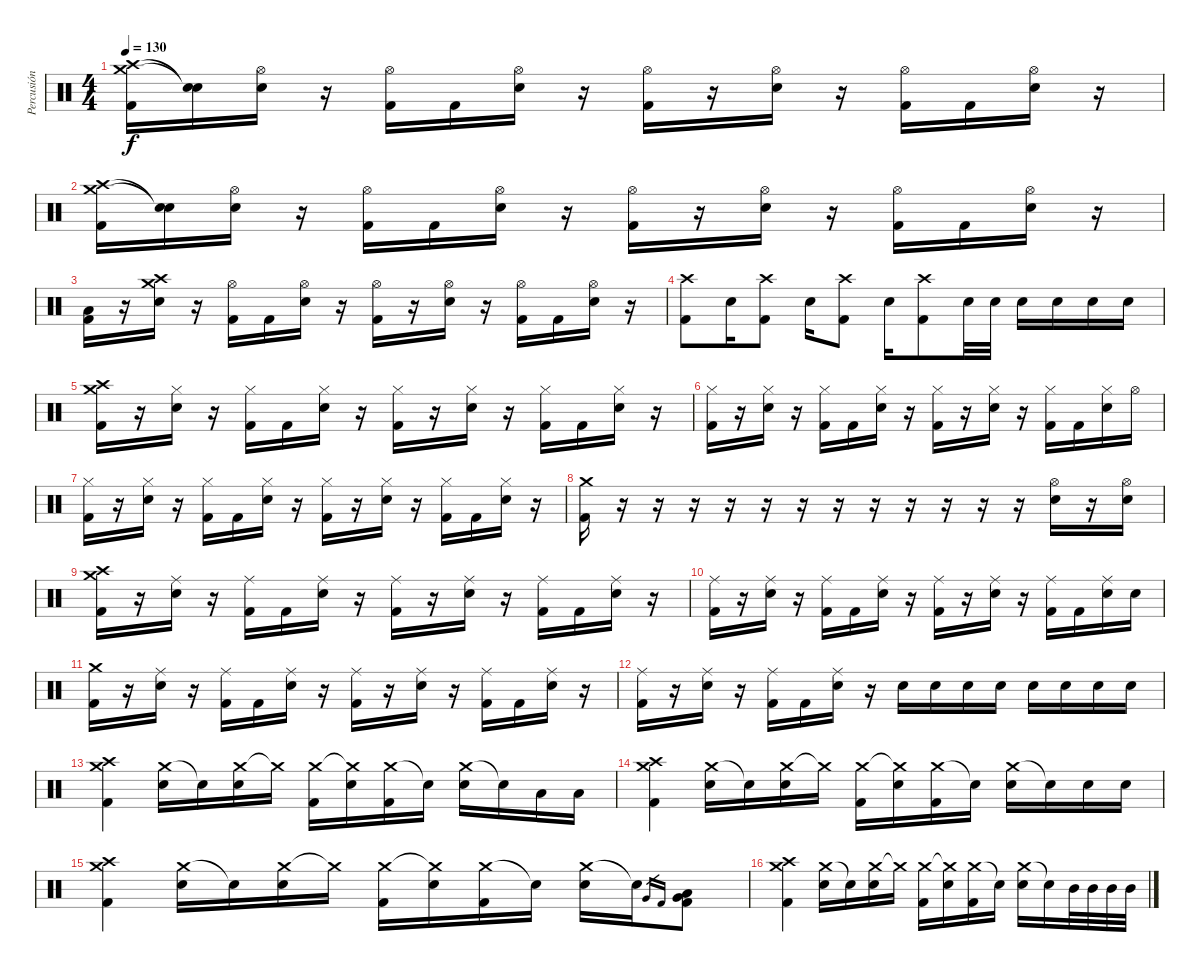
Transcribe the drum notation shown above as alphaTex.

\track ("Percusión" "Percusión") {instrument percussion}
\staff {score}
\articulation defaults
\ts (4 4)
\tempo 130
\clef neutral
\ks c
("Crash high (hit)" "Crash medium (hit)" "Kick (hit) 2").16{dy f} ("Snare (hit)"{t} "Snare (hit)"{t}).16 ("Hi-Hat (open)" "Electric Snare (hit)").16 r.16 ("Hi-Hat (open)" "Kick (hit) 2").16 "Kick (hit) 2".16 ("Hi-Hat (open)" "Electric Snare (hit)").16 r.16 ("Hi-Hat (open)" "Kick (hit) 2").16 r.16 ("Hi-Hat (open)" "Electric Snare (hit)").16 r.16 ("Hi-Hat (open)" "Kick (hit) 2").16 "Kick (hit) 2".16 ("Hi-Hat (open)" "Electric Snare (hit)").16 r.16 |
("Crash high (hit)" "Crash medium (hit)" "Kick (hit) 2").16 ("Snare (hit)"{t} "Snare (hit)"{t}).16 ("Hi-Hat (open)" "Electric Snare (hit)").16 r.16 ("Hi-Hat (open)" "Kick (hit) 2").16 "Kick (hit) 2".16 ("Hi-Hat (open)" "Electric Snare (hit)").16 r.16 ("Hi-Hat (open)" "Kick (hit) 2").16 r.16 ("Hi-Hat (open)" "Electric Snare (hit)").16 r.16 ("Hi-Hat (open)" "Kick (hit) 2").16 "Kick (hit) 2".16 ("Hi-Hat (open)" "Electric Snare (hit)").16 r.16 |
("Low Tom (hit)" "Kick (hit) 2").16 r.16 ("Crash medium (hit)" "Crash high (hit)" "Electric Snare (hit)").16 r.16 ("Hi-Hat (open)" "Kick (hit) 2").16 "Kick (hit) 2".16 ("Hi-Hat (open)" "Electric Snare (hit)").16 r.16 ("Hi-Hat (open)" "Kick (hit) 2").16 r.16 ("Hi-Hat (open)" "Electric Snare (hit)").16 r.16 ("Hi-Hat (open)" "Kick (hit) 2").16 "Kick (hit) 2".16 ("Hi-Hat (open)" "Electric Snare (hit)").16 r.16 |
("Crash high (hit)" "Kick (hit) 2").8 "Electric Snare (hit)".16 ("Crash high (hit)" "Kick (hit) 2").8 "Electric Snare (hit)".16 ("Crash high (hit)" "Kick (hit) 2").8 "Electric Snare (hit)".16 ("Crash high (hit)" "Kick (hit) 2").8 "Electric Snare (hit)".32 "Electric Snare (hit)".32 "Electric Snare (hit)".16 "Electric Snare (hit)".16 "Electric Snare (hit)".16 "Electric Snare (hit)".16 |
("Crash high (hit)" "Crash medium (hit)" "Kick (hit) 2").16 r.16 ("Hi-Hat (closed)" "Electric Snare (hit)").16 r.16 ("Hi-Hat (closed)" "Kick (hit) 2").16 "Kick (hit) 2".16 ("Hi-Hat (closed)" "Electric Snare (hit)").16 r.16 ("Hi-Hat (closed)" "Kick (hit) 2").16 r.16 ("Hi-Hat (closed)" "Electric Snare (hit)").16 r.16 ("Hi-Hat (closed)" "Kick (hit) 2").16 "Kick (hit) 2".16 ("Hi-Hat (closed)" "Electric Snare (hit)").16 r.16 |
("Hi-Hat (closed)" "Kick (hit) 2").16 r.16 ("Hi-Hat (closed)" "Electric Snare (hit)").16 r.16 ("Hi-Hat (closed)" "Kick (hit) 2").16 "Kick (hit) 2".16 ("Hi-Hat (closed)" "Electric Snare (hit)").16 r.16 ("Hi-Hat (closed)" "Kick (hit) 2").16 r.16 ("Hi-Hat (closed)" "Electric Snare (hit)").16 r.16 ("Hi-Hat (closed)" "Kick (hit) 2").16 "Kick (hit) 2".16 ("Hi-Hat (closed)" "Electric Snare (hit)").16 "Hi-Hat (open)".16 |
("Hi-Hat (closed)" "Kick (hit) 2").16 r.16 ("Hi-Hat (closed)" "Electric Snare (hit)").16 r.16 ("Hi-Hat (closed)" "Kick (hit) 2").16 "Kick (hit) 2".16 ("Hi-Hat (closed)" "Electric Snare (hit)").16 r.16 ("Hi-Hat (closed)" "Kick (hit) 2").16 r.16 ("Hi-Hat (closed)" "Electric Snare (hit)").16 r.16 ("Hi-Hat (closed)" "Kick (hit) 2").16 "Kick (hit) 2".16 ("Hi-Hat (closed)" "Electric Snare (hit)").16 r.16 |
("Crash medium (hit)" "Kick (hit) 2").16 r.16 r.16 r.16 r.16 r.16 r.16 r.16 r.16 r.16 r.16 r.16 r.16 ("Hi-Hat (open)" "Electric Snare (hit)").16 r.16 ("Hi-Hat (open)" "Electric Snare (hit)").16 |
("Crash high (hit)" "Crash medium (hit)" "Kick (hit) 2").16 r.16 ("Ride (middle)" "Electric Snare (hit)").16 r.16 ("Ride (middle)" "Kick (hit) 2").16 "Kick (hit) 2".16 ("Ride (middle)" "Electric Snare (hit)").16 r.16 ("Ride (middle)" "Kick (hit) 2").16 r.16 ("Ride (middle)" "Electric Snare (hit)").16 r.16 ("Ride (middle)" "Kick (hit) 2").16 "Kick (hit) 2".16 ("Ride (middle)" "Electric Snare (hit)").16 r.16 |
("Ride (middle)" "Kick (hit) 2").16 r.16 ("Ride (middle)" "Electric Snare (hit)").16 r.16 ("Ride (middle)" "Kick (hit) 2").16 "Kick (hit) 2".16 ("Ride (middle)" "Electric Snare (hit)").16 r.16 ("Ride (middle)" "Kick (hit) 2").16 r.16 ("Ride (middle)" "Electric Snare (hit)").16 r.16 ("Ride (middle)" "Kick (hit) 2").16 "Kick (hit) 2".16 ("Ride (middle)" "Electric Snare (hit)").16 "Electric Snare (hit)".16 |
("Crash medium (hit)" "Kick (hit) 2").16 r.16 ("Ride (middle)" "Electric Snare (hit)").16 r.16 ("Ride (middle)" "Kick (hit) 2").16 "Kick (hit) 2".16 ("Ride (middle)" "Electric Snare (hit)").16 r.16 ("Ride (middle)" "Kick (hit) 2").16 r.16 ("Ride (middle)" "Electric Snare (hit)").16 r.16 ("Ride (middle)" "Kick (hit) 2").16 "Kick (hit) 2".16 ("Ride (middle)" "Electric Snare (hit)").16 r.16 |
("Ride (middle)" "Kick (hit) 2").16 r.16 ("Ride (middle)" "Electric Snare (hit)").16 r.16 ("Ride (middle)" "Kick (hit) 2").16 "Kick (hit) 2".16 ("Ride (middle)" "Electric Snare (hit)").16 r.16 "Electric Snare (hit)".16 "Electric Snare (hit)".16 "Electric Snare (hit)".16 "Electric Snare (hit)".16 "Electric Snare (hit)".16 "Electric Snare (hit)".16 "Electric Snare (hit)".16 "Electric Snare (hit)".16 |
("Crash medium (hit)" "Crash high (hit)" "Kick (hit) 2").4 ("Crash medium (hit)" "Electric Snare (hit)").16 "Snare (hit)"{t}.16 ("Crash medium (hit)" "Electric Snare (hit)").16 "Crash medium (hit)"{t}.16 ("Crash medium (hit)" "Kick (hit) 2").16 ("Crash medium (hit)"{t} "Electric Snare (hit)").16 ("Crash medium (hit)" "Kick (hit) 2").16 "Snare (hit)"{t}.16 ("Crash medium (hit)" "Electric Snare (hit)").16 "Snare (hit)"{t}.16 "Low Tom (hit)".16 "Low Tom (hit)".16 |
("Crash medium (hit)" "Crash high (hit)" "Kick (hit) 2").4 ("Crash medium (hit)" "Electric Snare (hit)").16 "Snare (hit)"{t}.16 ("Crash medium (hit)" "Electric Snare (hit)").16 "Crash medium (hit)"{t}.16 ("Crash medium (hit)" "Kick (hit) 2").16 ("Crash medium (hit)"{t} "Electric Snare (hit)").16 ("Crash medium (hit)" "Kick (hit) 2").16 "Snare (hit)"{t}.16 ("Crash medium (hit)" "Electric Snare (hit)").16 "Snare (hit)"{t}.16 "Electric Snare (hit)".16 "Electric Snare (hit)".16 |
("Crash medium (hit)" "Crash high (hit)" "Kick (hit) 2").4 ("Crash medium (hit)" "Electric Snare (hit)").16 "Snare (hit)"{t}.16 ("Crash medium (hit)" "Electric Snare (hit)").16 "Crash medium (hit)"{t}.16 ("Crash medium (hit)" "Kick (hit) 2").16 ("Crash medium (hit)"{t} "Electric Snare (hit)").16 ("Crash medium (hit)" "Kick (hit) 2").16 "Snare (hit)"{t}.16 ("Crash medium (hit)" "Electric Snare (hit)").16 "Snare (hit)"{t}.16 "Very Low Tom (hit)".16{gr} "Kick (hit) 2".16{gr} ("Low Tom (hit)" "Very Low Tom (hit)" "Kick (hit) 2").8 |
("Crash medium (hit)" "Crash high (hit)" "Kick (hit) 2").4 ("Crash medium (hit)" "Electric Snare (hit)").16 "Snare (hit)"{t}.16 ("Crash medium (hit)" "Electric Snare (hit)").16 "Crash medium (hit)"{t}.16 ("Crash medium (hit)" "Kick (hit) 2").16 ("Crash medium (hit)"{t} "Electric Snare (hit)").16 ("Crash medium (hit)" "Kick (hit) 2").16 "Snare (hit)"{t}.16 ("Crash medium (hit)" "Electric Snare (hit)").16 "Snare (hit)"{t}.16 "Mid Tom (hit)".32 "Mid Tom (hit)".32 "Mid Tom (hit)".32 "Mid Tom (hit)".32
